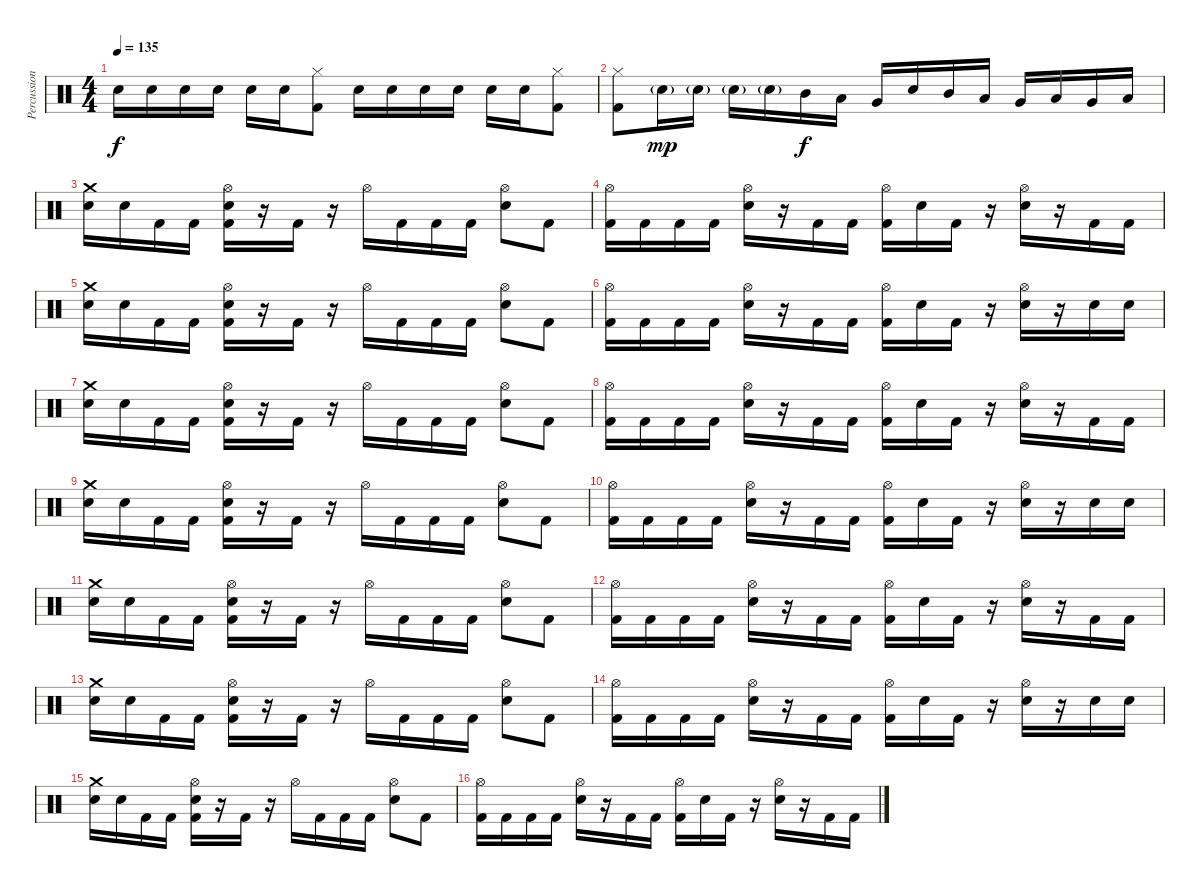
\track ("Percussion" "Percussion") {instrument percussion}
\staff {score}
\articulation defaults
\ts (4 4)
\tempo 135
\clef neutral
\ks c "Electric Snare (hit)".16{dy f} "Electric Snare (hit)".16 "Electric Snare (hit)".16 "Electric Snare (hit)".16 "Electric Snare (hit)".16 "Electric Snare (hit)".16
("Hi-Hat (closed)" "Kick (hit) 2").8 "Electric Snare (hit)".16 "Electric Snare (hit)".16 "Electric Snare (hit)".16 "Electric Snare (hit)".16 "Electric Snare (hit)".16 "Electric Snare (hit)".16 ("Hi-Hat (closed)" "Kick (hit) 2").8 |
("Hi-Hat (closed)" "Kick (hit) 2").8 "Electric Snare (hit)"{g}.16{dy mp} "Electric Snare (hit)"{g}.16 "Electric Snare (hit)"{g}.16 "Electric Snare (hit)"{g}.16 "Mid Tom (hit)".16{dy f} "Low Tom (hit)".16 "Very Low Tom (hit)".16 "Electric Snare (hit)".16 "Mid Tom (hit)".16 "Low Tom (hit)".16 "Very Low Tom (hit)".16 "Low Floor Tom (hit)".16 "Very Low Tom (hit)".16 "Low Floor Tom (hit)".16 |
("Crash medium (hit)" "Electric Snare (hit)").16 "Electric Snare (hit)".16 "Kick (hit) 2".16 "Kick (hit) 2".16 ("Hi-Hat (open)" "Electric Snare (hit)" "Kick (hit) 2").16 r.16 "Kick (hit) 2".16 r.16 "Hi-Hat (open)".16 "Kick (hit) 2".16 "Kick (hit) 2".16 "Kick (hit) 2".16 ("Hi-Hat (open)" "Electric Snare (hit)").8 "Kick (hit) 2".8 |
("Hi-Hat (open)" "Kick (hit) 2").16 "Kick (hit) 2".16 "Kick (hit) 2".16 "Kick (hit) 2".16 ("Hi-Hat (open)" "Electric Snare (hit)").16 r.16 "Kick (hit) 2".16 "Kick (hit) 2".16 ("Hi-Hat (open)" "Kick (hit) 2").16 "Electric Snare (hit)".16 "Kick (hit) 2".16 r.16 ("Hi-Hat (open)" "Electric Snare (hit)").16 r.16 "Kick (hit) 2".16 "Kick (hit) 2".16 |
("Crash medium (hit)" "Electric Snare (hit)").16 "Electric Snare (hit)".16 "Kick (hit) 2".16 "Kick (hit) 2".16 ("Hi-Hat (open)" "Electric Snare (hit)" "Kick (hit) 2").16 r.16 "Kick (hit) 2".16 r.16 "Hi-Hat (open)".16 "Kick (hit) 2".16 "Kick (hit) 2".16 "Kick (hit) 2".16 ("Hi-Hat (open)" "Electric Snare (hit)").8 "Kick (hit) 2".8 |
("Hi-Hat (open)" "Kick (hit) 2").16 "Kick (hit) 2".16 "Kick (hit) 2".16 "Kick (hit) 2".16 ("Hi-Hat (open)" "Electric Snare (hit)").16 r.16 "Kick (hit) 2".16 "Kick (hit) 2".16 ("Hi-Hat (open)" "Kick (hit) 2").16 "Electric Snare (hit)".16 "Kick (hit) 2".16 r.16 ("Hi-Hat (open)" "Electric Snare (hit)").16 r.16 "Electric Snare (hit)".16 "Electric Snare (hit)".16 |
("Crash medium (hit)" "Electric Snare (hit)").16 "Electric Snare (hit)".16 "Kick (hit) 2".16 "Kick (hit) 2".16 ("Hi-Hat (open)" "Electric Snare (hit)" "Kick (hit) 2").16 r.16 "Kick (hit) 2".16 r.16 "Hi-Hat (open)".16 "Kick (hit) 2".16 "Kick (hit) 2".16 "Kick (hit) 2".16 ("Hi-Hat (open)" "Electric Snare (hit)").8 "Kick (hit) 2".8 |
("Hi-Hat (open)" "Kick (hit) 2").16 "Kick (hit) 2".16 "Kick (hit) 2".16 "Kick (hit) 2".16 ("Hi-Hat (open)" "Electric Snare (hit)").16 r.16 "Kick (hit) 2".16 "Kick (hit) 2".16 ("Hi-Hat (open)" "Kick (hit) 2").16 "Electric Snare (hit)".16 "Kick (hit) 2".16 r.16 ("Hi-Hat (open)" "Electric Snare (hit)").16 r.16 "Kick (hit) 2".16 "Kick (hit) 2".16 |
("Crash medium (hit)" "Electric Snare (hit)").16 "Electric Snare (hit)".16 "Kick (hit) 2".16 "Kick (hit) 2".16 ("Hi-Hat (open)" "Electric Snare (hit)" "Kick (hit) 2").16 r.16 "Kick (hit) 2".16 r.16 "Hi-Hat (open)".16 "Kick (hit) 2".16 "Kick (hit) 2".16 "Kick (hit) 2".16 ("Hi-Hat (open)" "Electric Snare (hit)").8 "Kick (hit) 2".8 |
("Hi-Hat (open)" "Kick (hit) 2").16 "Kick (hit) 2".16 "Kick (hit) 2".16 "Kick (hit) 2".16 ("Hi-Hat (open)" "Electric Snare (hit)").16 r.16 "Kick (hit) 2".16 "Kick (hit) 2".16 ("Hi-Hat (open)" "Kick (hit) 2").16 "Electric Snare (hit)".16 "Kick (hit) 2".16 r.16 ("Hi-Hat (open)" "Electric Snare (hit)").16 r.16 "Electric Snare (hit)".16 "Electric Snare (hit)".16 |
("Crash medium (hit)" "Electric Snare (hit)").16 "Electric Snare (hit)".16 "Kick (hit) 2".16 "Kick (hit) 2".16 ("Hi-Hat (open)" "Electric Snare (hit)" "Kick (hit) 2").16 r.16 "Kick (hit) 2".16 r.16 "Hi-Hat (open)".16 "Kick (hit) 2".16 "Kick (hit) 2".16 "Kick (hit) 2".16 ("Hi-Hat (open)" "Electric Snare (hit)").8 "Kick (hit) 2".8 |
("Hi-Hat (open)" "Kick (hit) 2").16 "Kick (hit) 2".16 "Kick (hit) 2".16 "Kick (hit) 2".16 ("Hi-Hat (open)" "Electric Snare (hit)").16 r.16 "Kick (hit) 2".16 "Kick (hit) 2".16 ("Hi-Hat (open)" "Kick (hit) 2").16 "Electric Snare (hit)".16 "Kick (hit) 2".16 r.16 ("Hi-Hat (open)" "Electric Snare (hit)").16 r.16 "Kick (hit) 2".16 "Kick (hit) 2".16 |
("Crash medium (hit)" "Electric Snare (hit)").16 "Electric Snare (hit)".16 "Kick (hit) 2".16 "Kick (hit) 2".16 ("Hi-Hat (open)" "Electric Snare (hit)" "Kick (hit) 2").16 r.16 "Kick (hit) 2".16 r.16 "Hi-Hat (open)".16 "Kick (hit) 2".16 "Kick (hit) 2".16 "Kick (hit) 2".16 ("Hi-Hat (open)" "Electric Snare (hit)").8 "Kick (hit) 2".8 |
("Hi-Hat (open)" "Kick (hit) 2").16 "Kick (hit) 2".16 "Kick (hit) 2".16 "Kick (hit) 2".16 ("Hi-Hat (open)" "Electric Snare (hit)").16 r.16 "Kick (hit) 2".16 "Kick (hit) 2".16 ("Hi-Hat (open)" "Kick (hit) 2").16 "Electric Snare (hit)".16 "Kick (hit) 2".16 r.16 ("Hi-Hat (open)" "Electric Snare (hit)").16 r.16 "Electric Snare (hit)".16 "Electric Snare (hit)".16 |
("Crash medium (hit)" "Electric Snare (hit)").16 "Electric Snare (hit)".16 "Kick (hit) 2".16 "Kick (hit) 2".16 ("Hi-Hat (open)" "Electric Snare (hit)" "Kick (hit) 2").16 r.16 "Kick (hit) 2".16 r.16 "Hi-Hat (open)".16 "Kick (hit) 2".16 "Kick (hit) 2".16 "Kick (hit) 2".16 ("Hi-Hat (open)" "Electric Snare (hit)").8 "Kick (hit) 2".8 |
("Hi-Hat (open)" "Kick (hit) 2").16 "Kick (hit) 2".16 "Kick (hit) 2".16 "Kick (hit) 2".16 ("Hi-Hat (open)" "Electric Snare (hit)").16 r.16 "Kick (hit) 2".16 "Kick (hit) 2".16 ("Hi-Hat (open)" "Kick (hit) 2").16 "Electric Snare (hit)".16 "Kick (hit) 2".16 r.16 ("Hi-Hat (open)" "Electric Snare (hit)").16 r.16 "Kick (hit) 2".16 "Kick (hit) 2".16
